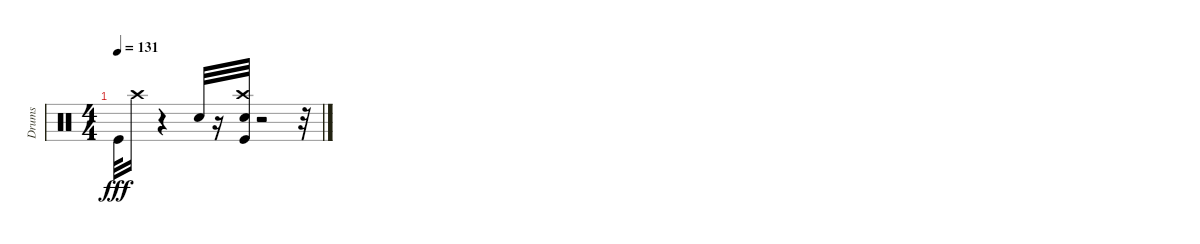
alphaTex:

\track ("Drums" "Drums") {instrument percussion}
\staff {score}
\articulation defaults
\ts (4 4)
\tempo 131
\clef neutral
\ks c "Kick (hit)".32{dy fff} "Crash high (hit)".16
r.4 "Electric Snare (hit)".32 r.16 ("Kick (hit)" "Electric Snare (hit)" "Crash high (hit)").32 r.2 r.32
